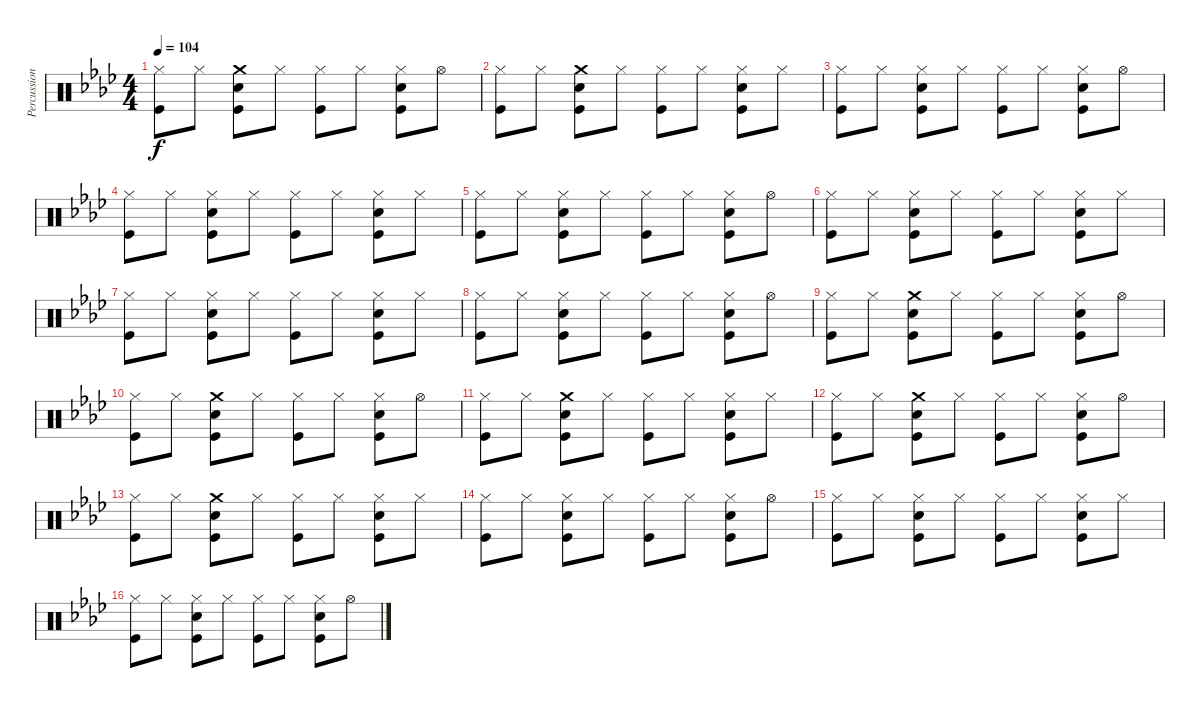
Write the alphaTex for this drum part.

\track ("Percussion" "Percussion") {instrument percussion}
\staff {score}
\articulation defaults
\ts (4 4)
\tempo 104
\clef neutral
\ks ab
("Hi-Hat (closed)" "Kick (hit)").8{dy f} "Hi-Hat (closed)".8 ("Crash medium (hit)" "Snare (hit) 2" "Kick (hit)").8 "Hi-Hat (closed)".8 ("Hi-Hat (closed)" "Kick (hit)").8 "Hi-Hat (closed)".8 ("Hi-Hat (closed)" "Snare (hit) 2" "Kick (hit)").8 "Hi-Hat (open)".8 |
("Hi-Hat (closed)" "Kick (hit)").8 "Hi-Hat (closed)".8 ("Crash medium (hit)" "Snare (hit) 2" "Kick (hit)").8 "Hi-Hat (closed)".8 ("Hi-Hat (closed)" "Kick (hit)").8 "Hi-Hat (closed)".8 ("Hi-Hat (closed)" "Snare (hit) 2" "Kick (hit)").8 "Hi-Hat (closed)".8 |
("Hi-Hat (closed)" "Kick (hit)").8 "Hi-Hat (closed)".8 ("Hi-Hat (closed)" "Snare (hit) 2" "Kick (hit)").8 "Hi-Hat (closed)".8 ("Hi-Hat (closed)" "Kick (hit)").8 "Hi-Hat (closed)".8 ("Hi-Hat (closed)" "Snare (hit) 2" "Kick (hit)").8 "Hi-Hat (open)".8 |
("Hi-Hat (closed)" "Kick (hit)").8 "Hi-Hat (closed)".8 ("Hi-Hat (closed)" "Snare (hit) 2" "Kick (hit)").8 "Hi-Hat (closed)".8 ("Hi-Hat (closed)" "Kick (hit)").8 "Hi-Hat (closed)".8 ("Hi-Hat (closed)" "Snare (hit) 2" "Kick (hit)").8 "Hi-Hat (closed)".8 |
("Hi-Hat (closed)" "Kick (hit)").8 "Hi-Hat (closed)".8 ("Hi-Hat (closed)" "Snare (hit) 2" "Kick (hit)").8 "Hi-Hat (closed)".8 ("Hi-Hat (closed)" "Kick (hit)").8 "Hi-Hat (closed)".8 ("Hi-Hat (closed)" "Snare (hit) 2" "Kick (hit)").8 "Hi-Hat (open)".8 |
("Hi-Hat (closed)" "Kick (hit)").8 "Hi-Hat (closed)".8 ("Hi-Hat (closed)" "Snare (hit) 2" "Kick (hit)").8 "Hi-Hat (closed)".8 ("Hi-Hat (closed)" "Kick (hit)").8 "Hi-Hat (closed)".8 ("Hi-Hat (closed)" "Snare (hit) 2" "Kick (hit)").8 "Hi-Hat (closed)".8 |
("Hi-Hat (closed)" "Kick (hit)").8 "Hi-Hat (closed)".8 ("Hi-Hat (closed)" "Snare (hit) 2" "Kick (hit)").8 "Hi-Hat (closed)".8 ("Hi-Hat (closed)" "Kick (hit)").8 "Hi-Hat (closed)".8 ("Hi-Hat (closed)" "Snare (hit) 2" "Kick (hit)").8 "Hi-Hat (closed)".8 |
("Hi-Hat (closed)" "Kick (hit)").8 "Hi-Hat (closed)".8 ("Hi-Hat (closed)" "Snare (hit) 2" "Kick (hit)").8 "Hi-Hat (closed)".8 ("Hi-Hat (closed)" "Kick (hit)").8 "Hi-Hat (closed)".8 ("Hi-Hat (closed)" "Snare (hit) 2" "Kick (hit)").8 "Hi-Hat (open)".8 |
("Hi-Hat (closed)" "Kick (hit)").8 "Hi-Hat (closed)".8 ("Crash medium (hit)" "Snare (hit) 2" "Kick (hit)").8 "Hi-Hat (closed)".8 ("Hi-Hat (closed)" "Kick (hit)").8 "Hi-Hat (closed)".8 ("Hi-Hat (closed)" "Snare (hit) 2" "Kick (hit)").8 "Hi-Hat (open)".8 |
("Hi-Hat (closed)" "Kick (hit)").8 "Hi-Hat (closed)".8 ("Crash medium (hit)" "Snare (hit) 2" "Kick (hit)").8 "Hi-Hat (closed)".8 ("Hi-Hat (closed)" "Kick (hit)").8 "Hi-Hat (closed)".8 ("Hi-Hat (closed)" "Snare (hit) 2" "Kick (hit)").8 "Hi-Hat (open)".8 |
("Hi-Hat (closed)" "Kick (hit)").8 "Hi-Hat (closed)".8 ("Crash medium (hit)" "Snare (hit) 2" "Kick (hit)").8 "Hi-Hat (closed)".8 ("Hi-Hat (closed)" "Kick (hit)").8 "Hi-Hat (closed)".8 ("Hi-Hat (closed)" "Snare (hit) 2" "Kick (hit)").8 "Hi-Hat (closed)".8 |
("Hi-Hat (closed)" "Kick (hit)").8 "Hi-Hat (closed)".8 ("Crash medium (hit)" "Snare (hit) 2" "Kick (hit)").8 "Hi-Hat (closed)".8 ("Hi-Hat (closed)" "Kick (hit)").8 "Hi-Hat (closed)".8 ("Hi-Hat (closed)" "Snare (hit) 2" "Kick (hit)").8 "Hi-Hat (open)".8 |
("Hi-Hat (closed)" "Kick (hit)").8 "Hi-Hat (closed)".8 ("Crash medium (hit)" "Snare (hit) 2" "Kick (hit)").8 "Hi-Hat (closed)".8 ("Hi-Hat (closed)" "Kick (hit)").8 "Hi-Hat (closed)".8 ("Hi-Hat (closed)" "Snare (hit) 2" "Kick (hit)").8 "Hi-Hat (closed)".8 |
("Hi-Hat (closed)" "Kick (hit)").8 "Hi-Hat (closed)".8 ("Hi-Hat (closed)" "Snare (hit) 2" "Kick (hit)").8 "Hi-Hat (closed)".8 ("Hi-Hat (closed)" "Kick (hit)").8 "Hi-Hat (closed)".8 ("Hi-Hat (closed)" "Snare (hit) 2" "Kick (hit)").8 "Hi-Hat (open)".8 |
("Hi-Hat (closed)" "Kick (hit)").8 "Hi-Hat (closed)".8 ("Hi-Hat (closed)" "Snare (hit) 2" "Kick (hit)").8 "Hi-Hat (closed)".8 ("Hi-Hat (closed)" "Kick (hit)").8 "Hi-Hat (closed)".8 ("Hi-Hat (closed)" "Snare (hit) 2" "Kick (hit)").8 "Hi-Hat (closed)".8 |
("Hi-Hat (closed)" "Kick (hit)").8 "Hi-Hat (closed)".8 ("Hi-Hat (closed)" "Snare (hit) 2" "Kick (hit)").8 "Hi-Hat (closed)".8 ("Hi-Hat (closed)" "Kick (hit)").8 "Hi-Hat (closed)".8 ("Hi-Hat (closed)" "Snare (hit) 2" "Kick (hit)").8 "Hi-Hat (open)".8
